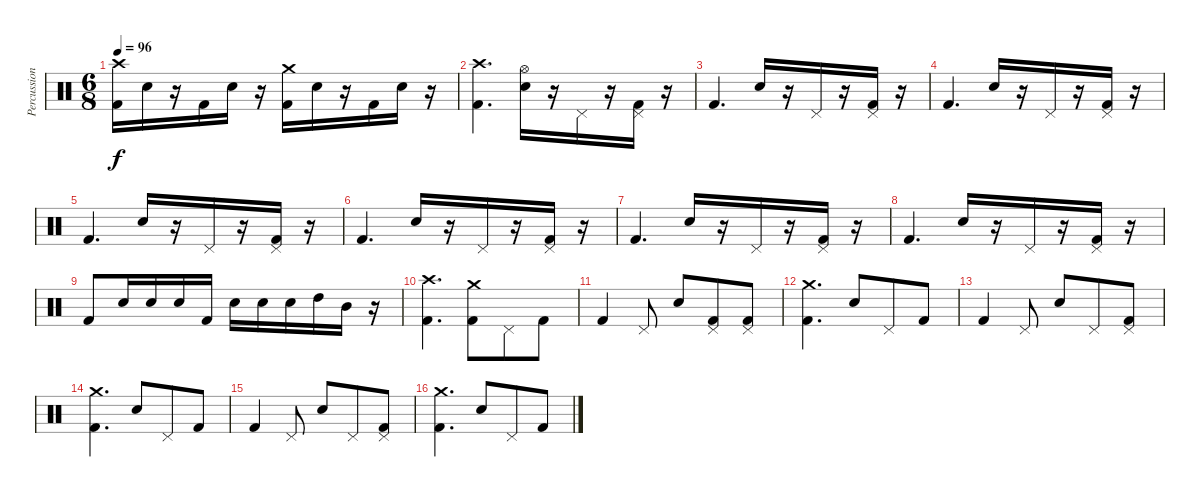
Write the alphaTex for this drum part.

\track ("Percussion" "Percussion") {instrument percussion}
\staff {score}
\articulation defaults
\ts (6 8)
\tempo 96
\clef neutral
\ks c
("Kick (hit) 2" "Crash high (hit)").16{dy f} "Snare (hit) 2".16 r.16 "Kick (hit) 2".16 "Snare (hit) 2".16 r.16 ("Kick (hit) 2" "Crash medium (hit)").16 "Snare (hit) 2".16 r.16 "Kick (hit) 2".16 "Snare (hit) 2".16 r.16 |
("Kick (hit) 2" "Crash high (hit)").4{d} ("Snare (hit) 2" "Hi-Hat (open)").16 r.16 "Pedal Hi-Hat (hit)".16 r.16 ("Kick (hit) 2" "Pedal Hi-Hat (hit)").16 r.16 |
"Kick (hit) 2".4{d} "Snare (hit) 2".16 r.16 "Pedal Hi-Hat (hit)".16 r.16 ("Kick (hit) 2" "Pedal Hi-Hat (hit)").16 r.16 |
"Kick (hit) 2".4{d} "Snare (hit) 2".16 r.16 "Pedal Hi-Hat (hit)".16 r.16 ("Kick (hit) 2" "Pedal Hi-Hat (hit)").16 r.16 |
"Kick (hit) 2".4{d} "Snare (hit) 2".16 r.16 "Pedal Hi-Hat (hit)".16 r.16 ("Kick (hit) 2" "Pedal Hi-Hat (hit)").16 r.16 |
"Kick (hit) 2".4{d} "Snare (hit) 2".16 r.16 "Pedal Hi-Hat (hit)".16 r.16 ("Kick (hit) 2" "Pedal Hi-Hat (hit)").16 r.16 |
"Kick (hit) 2".4{d} "Snare (hit) 2".16 r.16 "Pedal Hi-Hat (hit)".16 r.16 ("Kick (hit) 2" "Pedal Hi-Hat (hit)").16 r.16 |
"Kick (hit) 2".4{d} "Snare (hit) 2".16 r.16 "Pedal Hi-Hat (hit)".16 r.16 ("Kick (hit) 2" "Pedal Hi-Hat (hit)").16 r.16 |
"Kick (hit) 2".8 "Snare (hit) 2".16 "Snare (hit) 2".16 "Snare (hit) 2".16 "Kick (hit) 2".16 "Snare (hit) 2".16 "Snare (hit) 2".16 "Snare (hit) 2".16 "High Tom (hit)".16 "Mid Tom (hit)".16 r.16 |
("Kick (hit) 2" "Crash high (hit)").4{d} ("Kick (hit) 2" "Crash medium (hit)").8 "Pedal Hi-Hat (hit)".8 "Kick (hit) 2".8 |
"Kick (hit) 2".4 "Pedal Hi-Hat (hit)".8 "Snare (hit) 2".8 ("Kick (hit) 2" "Pedal Hi-Hat (hit)").8 ("Kick (hit) 2" "Pedal Hi-Hat (hit)").8 |
("Kick (hit) 2" "Crash medium (hit)").4{d} "Snare (hit) 2".8 "Pedal Hi-Hat (hit)".8 "Kick (hit) 2".8 |
"Kick (hit) 2".4 "Pedal Hi-Hat (hit)".8 "Snare (hit) 2".8 "Pedal Hi-Hat (hit)".8 ("Kick (hit) 2" "Pedal Hi-Hat (hit)").8 |
("Kick (hit) 2" "Crash medium (hit)").4{d} "Snare (hit) 2".8 "Pedal Hi-Hat (hit)".8 "Kick (hit) 2".8 |
"Kick (hit) 2".4 "Pedal Hi-Hat (hit)".8 "Snare (hit) 2".8 "Pedal Hi-Hat (hit)".8 ("Kick (hit) 2" "Pedal Hi-Hat (hit)").8 |
("Kick (hit) 2" "Crash medium (hit)").4{d} "Snare (hit) 2".8 "Pedal Hi-Hat (hit)".8 "Kick (hit) 2".8
